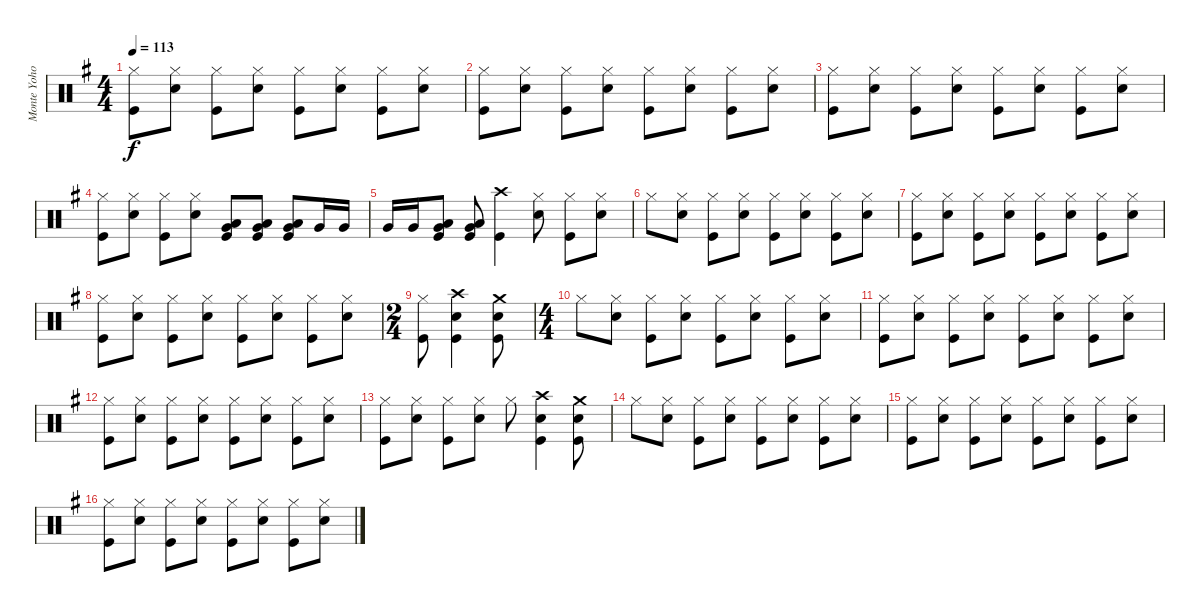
\track ("Monte Yoho Drums" "Monte Yoho") {instrument percussion}
\staff {score}
\articulation defaults
\ts (4 4)
\tempo 113
\clef neutral
\ks eminor
("Hi-Hat (closed)" "Kick (hit)").8{dy f} ("Hi-Hat (closed)" "Snare (hit) 2").8 ("Hi-Hat (closed)" "Kick (hit)").8 ("Hi-Hat (closed)" "Snare (hit) 2").8 ("Hi-Hat (closed)" "Kick (hit)").8 ("Hi-Hat (closed)" "Snare (hit) 2").8 ("Hi-Hat (closed)" "Kick (hit)").8 ("Hi-Hat (closed)" "Snare (hit) 2").8 |
("Hi-Hat (closed)" "Kick (hit)").8 ("Hi-Hat (closed)" "Snare (hit) 2").8 ("Hi-Hat (closed)" "Kick (hit)").8 ("Hi-Hat (closed)" "Snare (hit) 2").8 ("Hi-Hat (closed)" "Kick (hit)").8 ("Hi-Hat (closed)" "Snare (hit) 2").8 ("Hi-Hat (closed)" "Kick (hit)").8 ("Hi-Hat (closed)" "Snare (hit) 2").8 |
("Hi-Hat (closed)" "Kick (hit)").8 ("Hi-Hat (closed)" "Snare (hit) 2").8 ("Hi-Hat (closed)" "Kick (hit)").8 ("Hi-Hat (closed)" "Snare (hit) 2").8 ("Hi-Hat (closed)" "Kick (hit)").8 ("Hi-Hat (closed)" "Snare (hit) 2").8 ("Hi-Hat (closed)" "Kick (hit)").8 ("Hi-Hat (closed)" "Snare (hit) 2").8 |
("Hi-Hat (closed)" "Kick (hit)").8 ("Hi-Hat (closed)" "Snare (hit) 2").8 ("Hi-Hat (closed)" "Kick (hit)").8 ("Hi-Hat (closed)" "Snare (hit) 2").8 ("Very Low Tom (hit)" "Low Floor Tom (hit)" "Kick (hit)").8 ("Very Low Tom (hit)" "Low Floor Tom (hit)" "Kick (hit)").8 ("Very Low Tom (hit)" "Low Floor Tom (hit)" "Kick (hit)").8 "Very Low Tom (hit)".16 "Very Low Tom (hit)".16 |
"Very Low Tom (hit)".16 "Very Low Tom (hit)".16 ("Very Low Tom (hit)" "Low Floor Tom (hit)" "Kick (hit)").8 ("Very Low Tom (hit)" "Low Floor Tom (hit)" "Kick (hit)").8 ("Crash high (hit)" "Kick (hit)").4 ("Hi-Hat (closed)" "Snare (hit) 2").8 ("Hi-Hat (closed)" "Kick (hit)").8 ("Hi-Hat (closed)" "Snare (hit) 2").8 |
"Hi-Hat (closed)".8 ("Hi-Hat (closed)" "Snare (hit) 2").8 ("Hi-Hat (closed)" "Kick (hit)").8 ("Hi-Hat (closed)" "Snare (hit) 2").8 ("Hi-Hat (closed)" "Kick (hit)").8 ("Hi-Hat (closed)" "Snare (hit) 2").8 ("Hi-Hat (closed)" "Kick (hit)").8 ("Hi-Hat (closed)" "Snare (hit) 2").8 |
("Hi-Hat (closed)" "Kick (hit)").8 ("Hi-Hat (closed)" "Snare (hit) 2").8 ("Hi-Hat (closed)" "Kick (hit)").8 ("Hi-Hat (closed)" "Snare (hit) 2").8 ("Hi-Hat (closed)" "Kick (hit)").8 ("Hi-Hat (closed)" "Snare (hit) 2").8 ("Hi-Hat (closed)" "Kick (hit)").8 ("Hi-Hat (closed)" "Snare (hit) 2").8 |
("Hi-Hat (closed)" "Kick (hit)").8 ("Hi-Hat (closed)" "Snare (hit) 2").8 ("Hi-Hat (closed)" "Kick (hit)").8 ("Hi-Hat (closed)" "Snare (hit) 2").8 ("Hi-Hat (closed)" "Kick (hit)").8 ("Hi-Hat (closed)" "Snare (hit) 2").8 ("Hi-Hat (closed)" "Kick (hit)").8 ("Hi-Hat (closed)" "Snare (hit) 2").8 |
\ts (2 4)
("Hi-Hat (closed)" "Kick (hit)").8 ("Crash high (hit)" "Snare (hit) 2" "Kick (hit)").4 ("Crash medium (hit)" "Snare (hit) 2" "Kick (hit)").8 |
\ts (4 4)
"Hi-Hat (closed)".8 ("Hi-Hat (closed)" "Snare (hit) 2").8 ("Hi-Hat (closed)" "Kick (hit)").8 ("Hi-Hat (closed)" "Snare (hit) 2").8 ("Hi-Hat (closed)" "Kick (hit)").8 ("Hi-Hat (closed)" "Snare (hit) 2").8 ("Hi-Hat (closed)" "Kick (hit)").8 ("Hi-Hat (closed)" "Snare (hit) 2").8 |
("Hi-Hat (closed)" "Kick (hit)").8 ("Hi-Hat (closed)" "Snare (hit) 2").8 ("Hi-Hat (closed)" "Kick (hit)").8 ("Hi-Hat (closed)" "Snare (hit) 2").8 ("Hi-Hat (closed)" "Kick (hit)").8 ("Hi-Hat (closed)" "Snare (hit) 2").8 ("Hi-Hat (closed)" "Kick (hit)").8 ("Hi-Hat (closed)" "Snare (hit) 2").8 |
("Hi-Hat (closed)" "Kick (hit)").8 ("Hi-Hat (closed)" "Snare (hit) 2").8 ("Hi-Hat (closed)" "Kick (hit)").8 ("Hi-Hat (closed)" "Snare (hit) 2").8 ("Hi-Hat (closed)" "Kick (hit)").8 ("Hi-Hat (closed)" "Snare (hit) 2").8 ("Hi-Hat (closed)" "Kick (hit)").8 ("Hi-Hat (closed)" "Snare (hit) 2").8 |
("Hi-Hat (closed)" "Kick (hit)").8 ("Hi-Hat (closed)" "Snare (hit) 2").8 ("Hi-Hat (closed)" "Kick (hit)").8 ("Hi-Hat (closed)" "Snare (hit) 2").8 "Hi-Hat (closed)".8 ("Crash high (hit)" "Snare (hit) 2" "Kick (hit)").4 ("Crash medium (hit)" "Snare (hit) 2" "Kick (hit)").8 |
"Hi-Hat (closed)".8 ("Hi-Hat (closed)" "Snare (hit) 2").8 ("Hi-Hat (closed)" "Kick (hit)").8 ("Hi-Hat (closed)" "Snare (hit) 2").8 ("Hi-Hat (closed)" "Kick (hit)").8 ("Hi-Hat (closed)" "Snare (hit) 2").8 ("Hi-Hat (closed)" "Kick (hit)").8 ("Hi-Hat (closed)" "Snare (hit) 2").8 |
("Hi-Hat (closed)" "Kick (hit)").8 ("Hi-Hat (closed)" "Snare (hit) 2").8 ("Hi-Hat (closed)" "Kick (hit)").8 ("Hi-Hat (closed)" "Snare (hit) 2").8 ("Hi-Hat (closed)" "Kick (hit)").8 ("Hi-Hat (closed)" "Snare (hit) 2").8 ("Hi-Hat (closed)" "Kick (hit)").8 ("Hi-Hat (closed)" "Snare (hit) 2").8 |
("Hi-Hat (closed)" "Kick (hit)").8 ("Hi-Hat (closed)" "Snare (hit) 2").8 ("Hi-Hat (closed)" "Kick (hit)").8 ("Hi-Hat (closed)" "Snare (hit) 2").8 ("Hi-Hat (closed)" "Kick (hit)").8 ("Hi-Hat (closed)" "Snare (hit) 2").8 ("Hi-Hat (closed)" "Kick (hit)").8 ("Hi-Hat (closed)" "Snare (hit) 2").8
